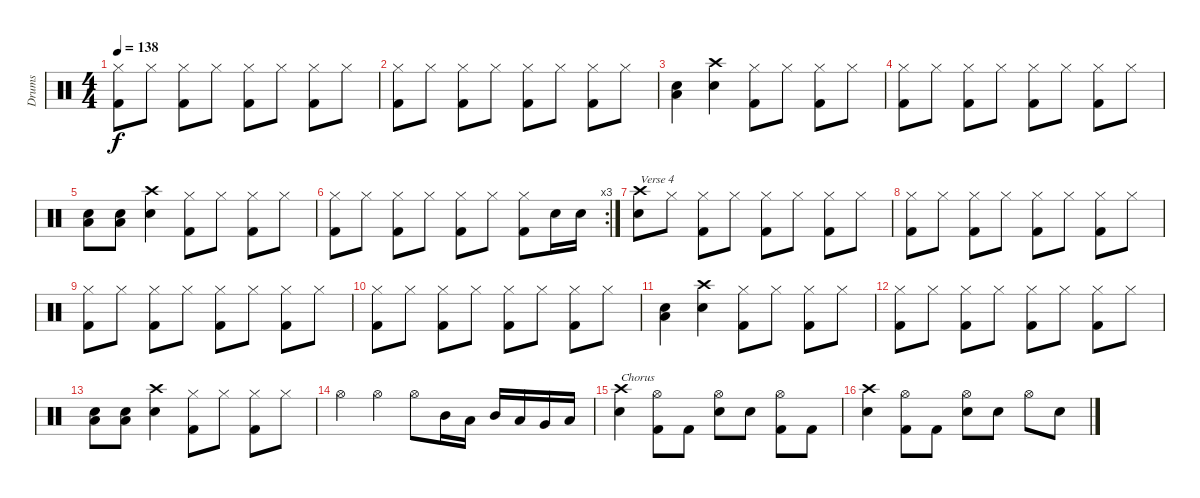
\track ("Drums" "Drums") {instrument percussion}
\staff {score}
\articulation defaults
\ts (4 4)
\tempo 138
\clef neutral
\ks c
("Hi-Hat (closed)" "Kick (hit) 2").8{dy f} "Hi-Hat (closed)".8 ("Hi-Hat (closed)" "Kick (hit) 2").8 "Hi-Hat (closed)".8 ("Hi-Hat (closed)" "Kick (hit) 2").8 "Hi-Hat (closed)".8 ("Hi-Hat (closed)" "Kick (hit) 2").8 "Hi-Hat (closed)".8 |
("Hi-Hat (closed)" "Kick (hit) 2").8 "Hi-Hat (closed)".8 ("Hi-Hat (closed)" "Kick (hit) 2").8 "Hi-Hat (closed)".8 ("Hi-Hat (closed)" "Kick (hit) 2").8 "Hi-Hat (closed)".8 ("Hi-Hat (closed)" "Kick (hit) 2").8 "Hi-Hat (closed)".8 |
("Low Tom (hit)" "Electric Snare (hit)").4 ("Electric Snare (hit)" "Crash high (hit)").4 ("Hi-Hat (closed)" "Kick (hit) 2").8 "Hi-Hat (closed)".8 ("Hi-Hat (closed)" "Kick (hit) 2").8 "Hi-Hat (closed)".8 |
("Hi-Hat (closed)" "Kick (hit) 2").8 "Hi-Hat (closed)".8 ("Hi-Hat (closed)" "Kick (hit) 2").8 "Hi-Hat (closed)".8 ("Hi-Hat (closed)" "Kick (hit) 2").8 "Hi-Hat (closed)".8 ("Hi-Hat (closed)" "Kick (hit) 2").8 "Hi-Hat (closed)".8 |
("Low Tom (hit)" "Electric Snare (hit)").8 ("Low Tom (hit)" "Electric Snare (hit)").8 ("Electric Snare (hit)" "Crash high (hit)").4 ("Hi-Hat (closed)" "Kick (hit) 2").8 "Hi-Hat (closed)".8 ("Hi-Hat (closed)" "Kick (hit) 2").8 "Hi-Hat (closed)".8 |
\rc 3
("Hi-Hat (closed)" "Kick (hit) 2").8 "Hi-Hat (closed)".8 ("Hi-Hat (closed)" "Kick (hit) 2").8 "Hi-Hat (closed)".8 ("Hi-Hat (closed)" "Kick (hit) 2").8 "Hi-Hat (closed)".8 ("Hi-Hat (closed)" "Kick (hit) 2").8 "Electric Snare (hit)".16 "Electric Snare (hit)".16 |
("Electric Snare (hit)" "Crash high (hit)").8{txt "Verse 4"} "Hi-Hat (closed)".8 ("Hi-Hat (closed)" "Kick (hit) 2").8 "Hi-Hat (closed)".8 ("Hi-Hat (closed)" "Kick (hit) 2").8 "Hi-Hat (closed)".8 ("Hi-Hat (closed)" "Kick (hit) 2").8 "Hi-Hat (closed)".8 |
("Hi-Hat (closed)" "Kick (hit) 2").8 "Hi-Hat (closed)".8 ("Hi-Hat (closed)" "Kick (hit) 2").8 "Hi-Hat (closed)".8 ("Hi-Hat (closed)" "Kick (hit) 2").8 "Hi-Hat (closed)".8 ("Hi-Hat (closed)" "Kick (hit) 2").8 "Hi-Hat (closed)".8 |
("Hi-Hat (closed)" "Kick (hit) 2").8 "Hi-Hat (closed)".8 ("Hi-Hat (closed)" "Kick (hit) 2").8 "Hi-Hat (closed)".8 ("Hi-Hat (closed)" "Kick (hit) 2").8 "Hi-Hat (closed)".8 ("Hi-Hat (closed)" "Kick (hit) 2").8 "Hi-Hat (closed)".8 |
("Hi-Hat (closed)" "Kick (hit) 2").8 "Hi-Hat (closed)".8 ("Hi-Hat (closed)" "Kick (hit) 2").8 "Hi-Hat (closed)".8 ("Hi-Hat (closed)" "Kick (hit) 2").8 "Hi-Hat (closed)".8 ("Hi-Hat (closed)" "Kick (hit) 2").8 "Hi-Hat (closed)".8 |
("Low Tom (hit)" "Electric Snare (hit)").4 ("Electric Snare (hit)" "Crash high (hit)").4 ("Hi-Hat (closed)" "Kick (hit) 2").8 "Hi-Hat (closed)".8 ("Hi-Hat (closed)" "Kick (hit) 2").8 "Hi-Hat (closed)".8 |
("Hi-Hat (closed)" "Kick (hit) 2").8 "Hi-Hat (closed)".8 ("Hi-Hat (closed)" "Kick (hit) 2").8 "Hi-Hat (closed)".8 ("Hi-Hat (closed)" "Kick (hit) 2").8 "Hi-Hat (closed)".8 ("Hi-Hat (closed)" "Kick (hit) 2").8 "Hi-Hat (closed)".8 |
("Low Tom (hit)" "Electric Snare (hit)").8 ("Low Tom (hit)" "Electric Snare (hit)").8 ("Electric Snare (hit)" "Crash high (hit)").4 ("Hi-Hat (closed)" "Kick (hit) 2").8 "Hi-Hat (closed)".8 ("Hi-Hat (closed)" "Kick (hit) 2").8 "Hi-Hat (closed)".8 |
"Hi-Hat (open)".4 "Hi-Hat (open)".4 "Hi-Hat (open)".8 "Mid Tom (hit)".16 "Low Tom (hit)".16 "Mid Tom (hit)".16 "Low Tom (hit)".16 "Very Low Tom (hit)".16 "Low Floor Tom (hit)".16 |
("Electric Snare (hit)" "Crash high (hit)").4{txt "Chorus"} ("Kick (hit) 2" "Hi-Hat (open)").8 "Kick (hit) 2".8 ("Electric Snare (hit)" "Hi-Hat (open)").8 "Electric Snare (hit)".8 ("Kick (hit) 2" "Hi-Hat (open)").8 "Kick (hit) 2".8 |
("Electric Snare (hit)" "Crash high (hit)").4 ("Kick (hit) 2" "Hi-Hat (open)").8 "Kick (hit) 2".8 ("Electric Snare (hit)" "Hi-Hat (open)").8 "Electric Snare (hit)".8 "Hi-Hat (open)".8 "Electric Snare (hit)".8
